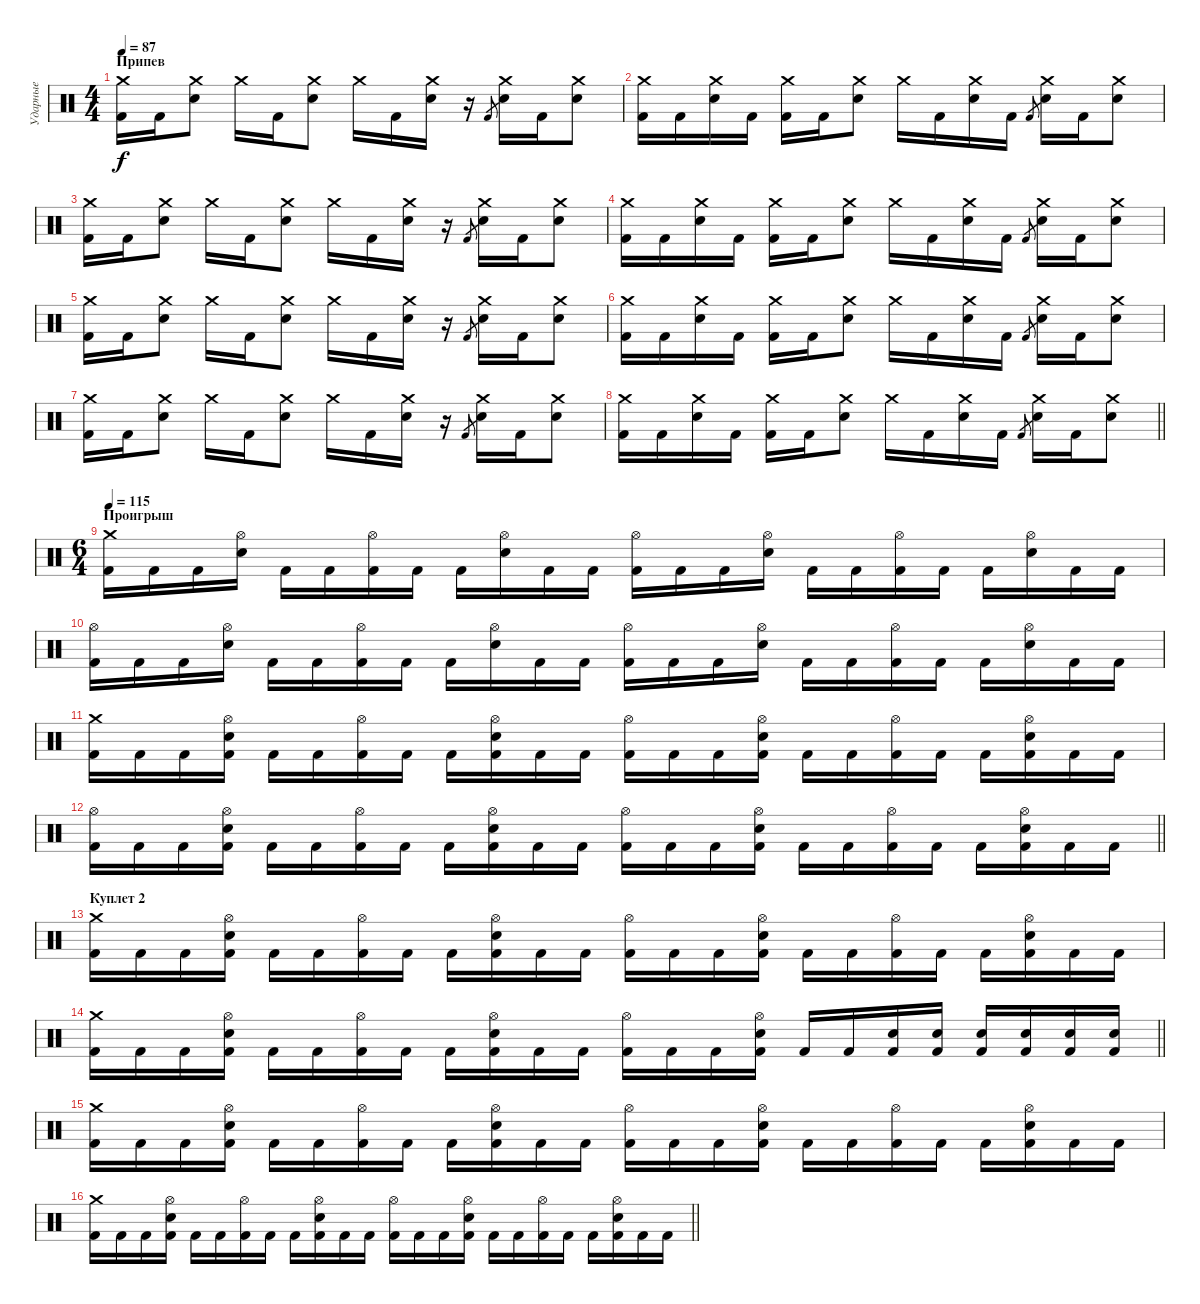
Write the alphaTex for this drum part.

\track ("Ударные" "Ударные") {instrument percussion}
\staff {score}
\articulation defaults
\ts (4 4)
\section ("" "Припев")
\tempo 87
\clef neutral
\ks c
("Crash medium (hit)" "Kick (hit) 2").16{dy f} "Kick (hit) 2".16 ("Crash medium (hit)" "Electric Snare (hit)").8 "Crash medium (hit)".16 "Kick (hit) 2".16 ("Crash medium (hit)" "Electric Snare (hit)").8 "Crash medium (hit)".16 "Kick (hit) 2".16 ("Crash medium (hit)" "Electric Snare (hit)").16 r.16 "Kick (hit) 2".8{gr} ("Crash medium (hit)" "Electric Snare (hit)").16 "Kick (hit) 2".16 ("Crash medium (hit)" "Electric Snare (hit)").8 |
("Crash medium (hit)" "Kick (hit) 2").16 "Kick (hit) 2".16 ("Crash medium (hit)" "Electric Snare (hit)").16 "Kick (hit) 2".16 ("Crash medium (hit)" "Kick (hit) 2").16 "Kick (hit) 2".16 ("Crash medium (hit)" "Electric Snare (hit)").8 "Crash medium (hit)".16 "Kick (hit) 2".16 ("Crash medium (hit)" "Electric Snare (hit)").16 "Kick (hit) 2".16 "Kick (hit) 2".8{gr} ("Crash medium (hit)" "Electric Snare (hit)").16 "Kick (hit) 2".16 ("Crash medium (hit)" "Electric Snare (hit)").8 |
("Crash medium (hit)" "Kick (hit) 2").16 "Kick (hit) 2".16 ("Crash medium (hit)" "Electric Snare (hit)").8 "Crash medium (hit)".16 "Kick (hit) 2".16 ("Crash medium (hit)" "Electric Snare (hit)").8 "Crash medium (hit)".16 "Kick (hit) 2".16 ("Crash medium (hit)" "Electric Snare (hit)").16 r.16 "Kick (hit) 2".8{gr} ("Crash medium (hit)" "Electric Snare (hit)").16 "Kick (hit) 2".16 ("Crash medium (hit)" "Electric Snare (hit)").8 |
("Crash medium (hit)" "Kick (hit) 2").16 "Kick (hit) 2".16 ("Crash medium (hit)" "Electric Snare (hit)").16 "Kick (hit) 2".16 ("Crash medium (hit)" "Kick (hit) 2").16 "Kick (hit) 2".16 ("Crash medium (hit)" "Electric Snare (hit)").8 "Crash medium (hit)".16 "Kick (hit) 2".16 ("Crash medium (hit)" "Electric Snare (hit)").16 "Kick (hit) 2".16 "Kick (hit) 2".8{gr} ("Crash medium (hit)" "Electric Snare (hit)").16 "Kick (hit) 2".16 ("Crash medium (hit)" "Electric Snare (hit)").8 |
("Crash medium (hit)" "Kick (hit) 2").16 "Kick (hit) 2".16 ("Crash medium (hit)" "Electric Snare (hit)").8 "Crash medium (hit)".16 "Kick (hit) 2".16 ("Crash medium (hit)" "Electric Snare (hit)").8 "Crash medium (hit)".16 "Kick (hit) 2".16 ("Crash medium (hit)" "Electric Snare (hit)").16 r.16 "Kick (hit) 2".8{gr} ("Crash medium (hit)" "Electric Snare (hit)").16 "Kick (hit) 2".16 ("Crash medium (hit)" "Electric Snare (hit)").8 |
("Crash medium (hit)" "Kick (hit) 2").16 "Kick (hit) 2".16 ("Crash medium (hit)" "Electric Snare (hit)").16 "Kick (hit) 2".16 ("Crash medium (hit)" "Kick (hit) 2").16 "Kick (hit) 2".16 ("Crash medium (hit)" "Electric Snare (hit)").8 "Crash medium (hit)".16 "Kick (hit) 2".16 ("Crash medium (hit)" "Electric Snare (hit)").16 "Kick (hit) 2".16 "Kick (hit) 2".8{gr} ("Crash medium (hit)" "Electric Snare (hit)").16 "Kick (hit) 2".16 ("Crash medium (hit)" "Electric Snare (hit)").8 |
("Crash medium (hit)" "Kick (hit) 2").16 "Kick (hit) 2".16 ("Crash medium (hit)" "Electric Snare (hit)").8 "Crash medium (hit)".16 "Kick (hit) 2".16 ("Crash medium (hit)" "Electric Snare (hit)").8 "Crash medium (hit)".16 "Kick (hit) 2".16 ("Crash medium (hit)" "Electric Snare (hit)").16 r.16 "Kick (hit) 2".8{gr} ("Crash medium (hit)" "Electric Snare (hit)").16 "Kick (hit) 2".16 ("Crash medium (hit)" "Electric Snare (hit)").8 |
\barLineRight lightlight
("Crash medium (hit)" "Kick (hit) 2").16 "Kick (hit) 2".16 ("Crash medium (hit)" "Electric Snare (hit)").16 "Kick (hit) 2".16 ("Crash medium (hit)" "Kick (hit) 2").16 "Kick (hit) 2".16 ("Crash medium (hit)" "Electric Snare (hit)").8 "Crash medium (hit)".16 "Kick (hit) 2".16 ("Crash medium (hit)" "Electric Snare (hit)").16 "Kick (hit) 2".16 "Kick (hit) 2".8{gr} ("Crash medium (hit)" "Electric Snare (hit)").16 "Kick (hit) 2".16 ("Crash medium (hit)" "Electric Snare (hit)").8 |
\ts (6 4)
\section ("" "Проигрыш")
\tempo 115
("Crash medium (hit)" "Kick (hit) 2").16 "Kick (hit) 2".16 "Kick (hit) 2".16 ("Hi-Hat (open)" "Electric Snare (hit)").16 "Kick (hit) 2".16 "Kick (hit) 2".16 ("Hi-Hat (open)" "Kick (hit) 2").16 "Kick (hit) 2".16 "Kick (hit) 2".16 ("Hi-Hat (open)" "Electric Snare (hit)").16 "Kick (hit) 2".16 "Kick (hit) 2".16 ("Hi-Hat (open)" "Kick (hit) 2").16 "Kick (hit) 2".16 "Kick (hit) 2".16 ("Hi-Hat (open)" "Electric Snare (hit)").16 "Kick (hit) 2".16 "Kick (hit) 2".16 ("Hi-Hat (open)" "Kick (hit) 2").16 "Kick (hit) 2".16 "Kick (hit) 2".16 ("Hi-Hat (open)" "Electric Snare (hit)").16 "Kick (hit) 2".16 "Kick (hit) 2".16 |
("Hi-Hat (open)" "Kick (hit) 2").16 "Kick (hit) 2".16 "Kick (hit) 2".16 ("Hi-Hat (open)" "Electric Snare (hit)").16 "Kick (hit) 2".16 "Kick (hit) 2".16 ("Hi-Hat (open)" "Kick (hit) 2").16 "Kick (hit) 2".16 "Kick (hit) 2".16 ("Hi-Hat (open)" "Electric Snare (hit)").16 "Kick (hit) 2".16 "Kick (hit) 2".16 ("Hi-Hat (open)" "Kick (hit) 2").16 "Kick (hit) 2".16 "Kick (hit) 2".16 ("Hi-Hat (open)" "Electric Snare (hit)").16 "Kick (hit) 2".16 "Kick (hit) 2".16 ("Hi-Hat (open)" "Kick (hit) 2").16 "Kick (hit) 2".16 "Kick (hit) 2".16 ("Hi-Hat (open)" "Electric Snare (hit)").16 "Kick (hit) 2".16 "Kick (hit) 2".16 |
("Crash medium (hit)" "Kick (hit) 2").16 "Kick (hit) 2".16 "Kick (hit) 2".16 ("Hi-Hat (open)" "Electric Snare (hit)" "Kick (hit) 2").16 "Kick (hit) 2".16 "Kick (hit) 2".16 ("Hi-Hat (open)" "Kick (hit) 2").16 "Kick (hit) 2".16 "Kick (hit) 2".16 ("Hi-Hat (open)" "Electric Snare (hit)" "Kick (hit) 2").16 "Kick (hit) 2".16 "Kick (hit) 2".16 ("Hi-Hat (open)" "Kick (hit) 2").16 "Kick (hit) 2".16 "Kick (hit) 2".16 ("Hi-Hat (open)" "Electric Snare (hit)" "Kick (hit) 2").16 "Kick (hit) 2".16 "Kick (hit) 2".16 ("Hi-Hat (open)" "Kick (hit) 2").16 "Kick (hit) 2".16 "Kick (hit) 2".16 ("Hi-Hat (open)" "Electric Snare (hit)" "Kick (hit) 2").16 "Kick (hit) 2".16 "Kick (hit) 2".16 |
\barLineRight lightlight
("Hi-Hat (open)" "Kick (hit) 2").16 "Kick (hit) 2".16 "Kick (hit) 2".16 ("Hi-Hat (open)" "Electric Snare (hit)" "Kick (hit) 2").16 "Kick (hit) 2".16 "Kick (hit) 2".16 ("Hi-Hat (open)" "Kick (hit) 2").16 "Kick (hit) 2".16 "Kick (hit) 2".16 ("Hi-Hat (open)" "Electric Snare (hit)" "Kick (hit) 2").16 "Kick (hit) 2".16 "Kick (hit) 2".16 ("Hi-Hat (open)" "Kick (hit) 2").16 "Kick (hit) 2".16 "Kick (hit) 2".16 ("Hi-Hat (open)" "Electric Snare (hit)" "Kick (hit) 2").16 "Kick (hit) 2".16 "Kick (hit) 2".16 ("Hi-Hat (open)" "Kick (hit) 2").16 "Kick (hit) 2".16 "Kick (hit) 2".16 ("Hi-Hat (open)" "Electric Snare (hit)" "Kick (hit) 2").16 "Kick (hit) 2".16 "Kick (hit) 2".16 |
\section ("" "Куплет 2")
("Crash medium (hit)" "Kick (hit) 2").16 "Kick (hit) 2".16 "Kick (hit) 2".16 ("Hi-Hat (open)" "Electric Snare (hit)" "Kick (hit) 2").16 "Kick (hit) 2".16 "Kick (hit) 2".16 ("Hi-Hat (open)" "Kick (hit) 2").16 "Kick (hit) 2".16 "Kick (hit) 2".16 ("Hi-Hat (open)" "Electric Snare (hit)" "Kick (hit) 2").16 "Kick (hit) 2".16 "Kick (hit) 2".16 ("Hi-Hat (open)" "Kick (hit) 2").16 "Kick (hit) 2".16 "Kick (hit) 2".16 ("Hi-Hat (open)" "Electric Snare (hit)" "Kick (hit) 2").16 "Kick (hit) 2".16 "Kick (hit) 2".16 ("Hi-Hat (open)" "Kick (hit) 2").16 "Kick (hit) 2".16 "Kick (hit) 2".16 ("Hi-Hat (open)" "Electric Snare (hit)" "Kick (hit) 2").16 "Kick (hit) 2".16 "Kick (hit) 2".16 |
\barLineRight lightlight
("Crash medium (hit)" "Kick (hit) 2").16 "Kick (hit) 2".16 "Kick (hit) 2".16 ("Hi-Hat (open)" "Electric Snare (hit)" "Kick (hit) 2").16 "Kick (hit) 2".16 "Kick (hit) 2".16 ("Hi-Hat (open)" "Kick (hit) 2").16 "Kick (hit) 2".16 "Kick (hit) 2".16 ("Hi-Hat (open)" "Electric Snare (hit)" "Kick (hit) 2").16 "Kick (hit) 2".16 "Kick (hit) 2".16 ("Hi-Hat (open)" "Kick (hit) 2").16 "Kick (hit) 2".16 "Kick (hit) 2".16 ("Hi-Hat (open)" "Electric Snare (hit)" "Kick (hit) 2").16 "Kick (hit) 2".16 "Kick (hit) 2".16 ("Electric Snare (hit)" "Kick (hit) 2").16 ("Electric Snare (hit)" "Kick (hit) 2").16 ("Electric Snare (hit)" "Kick (hit) 2").16 ("Electric Snare (hit)" "Kick (hit) 2").16 ("Electric Snare (hit)" "Kick (hit) 2").16 ("Electric Snare (hit)" "Kick (hit) 2").16 |
("Crash medium (hit)" "Kick (hit) 2").16 "Kick (hit) 2".16 "Kick (hit) 2".16 ("Hi-Hat (open)" "Electric Snare (hit)" "Kick (hit) 2").16 "Kick (hit) 2".16 "Kick (hit) 2".16 ("Hi-Hat (open)" "Kick (hit) 2").16 "Kick (hit) 2".16 "Kick (hit) 2".16 ("Hi-Hat (open)" "Electric Snare (hit)" "Kick (hit) 2").16 "Kick (hit) 2".16 "Kick (hit) 2".16 ("Hi-Hat (open)" "Kick (hit) 2").16 "Kick (hit) 2".16 "Kick (hit) 2".16 ("Hi-Hat (open)" "Electric Snare (hit)" "Kick (hit) 2").16 "Kick (hit) 2".16 "Kick (hit) 2".16 ("Hi-Hat (open)" "Kick (hit) 2").16 "Kick (hit) 2".16 "Kick (hit) 2".16 ("Hi-Hat (open)" "Electric Snare (hit)" "Kick (hit) 2").16 "Kick (hit) 2".16 "Kick (hit) 2".16 |
\barLineRight lightlight
("Crash medium (hit)" "Kick (hit) 2").16 "Kick (hit) 2".16 "Kick (hit) 2".16 ("Hi-Hat (open)" "Electric Snare (hit)" "Kick (hit) 2").16 "Kick (hit) 2".16 "Kick (hit) 2".16 ("Hi-Hat (open)" "Kick (hit) 2").16 "Kick (hit) 2".16 "Kick (hit) 2".16 ("Hi-Hat (open)" "Electric Snare (hit)" "Kick (hit) 2").16 "Kick (hit) 2".16 "Kick (hit) 2".16 ("Hi-Hat (open)" "Kick (hit) 2").16 "Kick (hit) 2".16 "Kick (hit) 2".16 ("Hi-Hat (open)" "Electric Snare (hit)" "Kick (hit) 2").16 "Kick (hit) 2".16 "Kick (hit) 2".16 ("Hi-Hat (open)" "Kick (hit) 2").16 "Kick (hit) 2".16 "Kick (hit) 2".16 ("Hi-Hat (open)" "Electric Snare (hit)" "Kick (hit) 2").16 "Kick (hit) 2".16 "Kick (hit) 2".16
